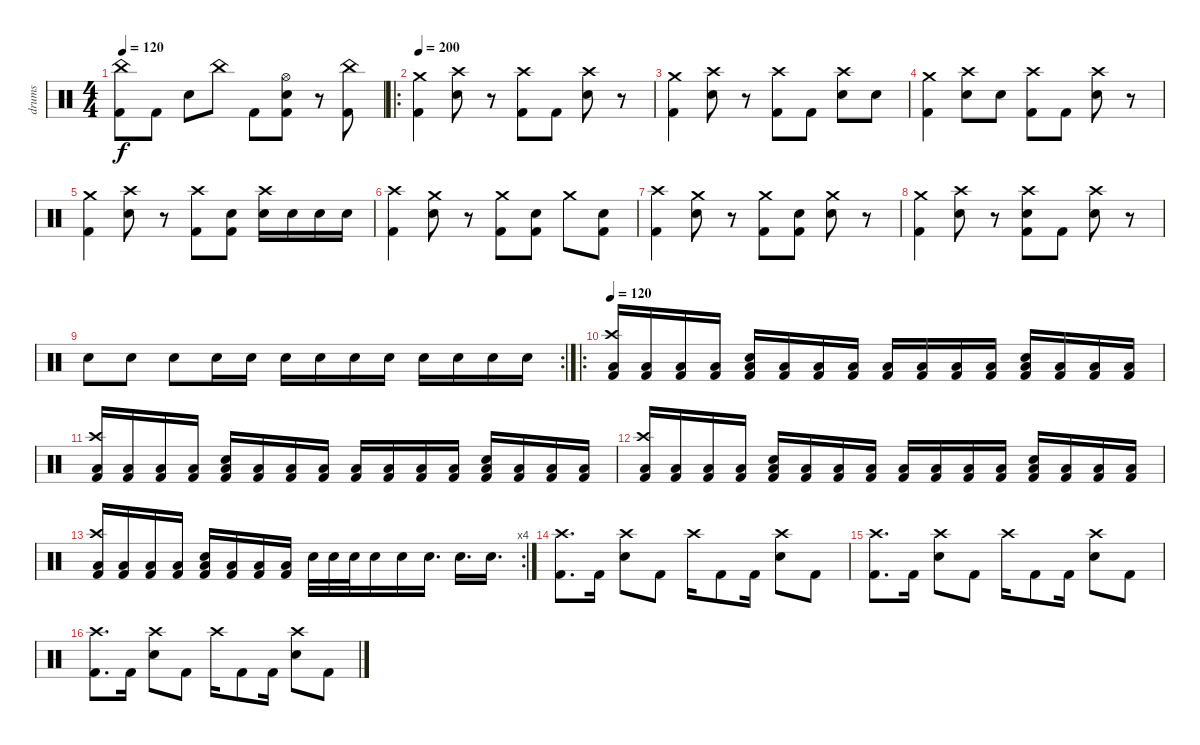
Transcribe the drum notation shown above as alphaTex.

\track ("drums" "drums") {instrument percussion}
\staff {score}
\articulation defaults
\ts (4 4)
\tempo 120
\clef neutral
\ks c
("China (hit)" "Kick (hit) 2").8{dy f} "Kick (hit) 2".8 "Electric Snare (hit)".8 "China (hit)".8 "Kick (hit) 2".8 ("Hi-Hat (open)" "Electric Snare (hit)" "Kick (hit) 2").8 r.8 ("China (hit)" "Kick (hit) 2").8 |
\ro
\tempo 200
("Crash medium (hit)" "Kick (hit) 2").4 ("Crash high (hit)" "Electric Snare (hit)").8 r.8 ("Crash high (hit)" "Kick (hit) 2").8 "Kick (hit) 2".8 ("Crash high (hit)" "Electric Snare (hit)").8 r.8 |
("Crash medium (hit)" "Kick (hit) 2").4 ("Crash high (hit)" "Electric Snare (hit)").8 r.8 ("Crash high (hit)" "Kick (hit) 2").8 "Kick (hit) 2".8 ("Crash high (hit)" "Electric Snare (hit)").8 "Electric Snare (hit)".8 |
("Crash medium (hit)" "Kick (hit) 2").4 ("Crash high (hit)" "Electric Snare (hit)").8 "Electric Snare (hit)".8 ("Crash high (hit)" "Kick (hit) 2").8 "Kick (hit) 2".8 ("Crash high (hit)" "Electric Snare (hit)").8 r.8 |
("Crash medium (hit)" "Kick (hit) 2").4 ("Crash high (hit)" "Electric Snare (hit)").8 r.8 ("Crash high (hit)" "Kick (hit) 2").8 ("Electric Snare (hit)" "Kick (hit) 2").8 ("Crash high (hit)" "Electric Snare (hit)").16 "Electric Snare (hit)".16 "Electric Snare (hit)".16 "Electric Snare (hit)".16 |
("Crash high (hit)" "Kick (hit) 2").4 ("Crash medium (hit)" "Electric Snare (hit)").8 r.8 ("Crash medium (hit)" "Kick (hit) 2").8 ("Electric Snare (hit)" "Kick (hit) 2").8 "Crash medium (hit)".8 ("Electric Snare (hit)" "Kick (hit) 2").8 |
("Crash high (hit)" "Kick (hit) 2").4 ("Crash medium (hit)" "Electric Snare (hit)").8 r.8 ("Crash medium (hit)" "Kick (hit) 2").8 ("Electric Snare (hit)" "Kick (hit) 2").8 ("Crash medium (hit)" "Electric Snare (hit)").8 r.8 |
("Crash medium (hit)" "Kick (hit) 2").4 ("Crash high (hit)" "Electric Snare (hit)").8 r.8 ("Crash high (hit)" "Electric Snare (hit)" "Kick (hit) 2").8 "Kick (hit) 2".8 ("Crash high (hit)" "Electric Snare (hit)").8 r.8 |
\rc 2 "Electric Snare (hit)".8 "Electric Snare (hit)".8 "Electric Snare (hit)".8 "Electric Snare (hit)".16 "Electric Snare (hit)".16 "Electric Snare (hit)".16 "Electric Snare (hit)".16 "Electric Snare (hit)".16 "Electric Snare (hit)".16 "Electric Snare (hit)".16 "Electric Snare (hit)".16 "Electric Snare (hit)".16 "Electric Snare (hit)".16
|
\ro
\tempo 120
("Crash high (hit)" "Low Floor Tom (hit)" "Kick (hit) 2").16 ("Low Floor Tom (hit)" "Kick (hit) 2").16 ("Low Floor Tom (hit)" "Kick (hit) 2").16 ("Low Floor Tom (hit)" "Kick (hit) 2").16 ("Electric Snare (hit)" "Low Floor Tom (hit)" "Kick (hit) 2").16 ("Low Floor Tom (hit)" "Kick (hit) 2").16 ("Low Floor Tom (hit)" "Kick (hit) 2").16 ("Low Floor Tom (hit)" "Kick (hit) 2").16 ("Low Floor Tom (hit)" "Kick (hit) 2").16 ("Low Floor Tom (hit)" "Kick (hit) 2").16 ("Low Floor Tom (hit)" "Kick (hit) 2").16 ("Low Floor Tom (hit)" "Kick (hit) 2").16 ("Electric Snare (hit)" "Low Floor Tom (hit)" "Kick (hit) 2").16 ("Low Floor Tom (hit)" "Kick (hit) 2").16 ("Low Floor Tom (hit)" "Kick (hit) 2").16 ("Low Floor Tom (hit)" "Kick (hit) 2").16 |
("Crash high (hit)" "Low Floor Tom (hit)" "Kick (hit) 2").16 ("Low Floor Tom (hit)" "Kick (hit) 2").16 ("Low Floor Tom (hit)" "Kick (hit) 2").16 ("Low Floor Tom (hit)" "Kick (hit) 2").16 ("Electric Snare (hit)" "Low Floor Tom (hit)" "Kick (hit) 2").16 ("Low Floor Tom (hit)" "Kick (hit) 2").16 ("Low Floor Tom (hit)" "Kick (hit) 2").16 ("Low Floor Tom (hit)" "Kick (hit) 2").16 ("Low Floor Tom (hit)" "Kick (hit) 2").16 ("Low Floor Tom (hit)" "Kick (hit) 2").16 ("Low Floor Tom (hit)" "Kick (hit) 2").16 ("Low Floor Tom (hit)" "Kick (hit) 2").16 ("Electric Snare (hit)" "Low Floor Tom (hit)" "Kick (hit) 2").16 ("Low Floor Tom (hit)" "Kick (hit) 2").16 ("Low Floor Tom (hit)" "Kick (hit) 2").16 ("Low Floor Tom (hit)" "Kick (hit) 2").16 |
("Crash high (hit)" "Low Floor Tom (hit)" "Kick (hit) 2").16 ("Low Floor Tom (hit)" "Kick (hit) 2").16 ("Low Floor Tom (hit)" "Kick (hit) 2").16 ("Low Floor Tom (hit)" "Kick (hit) 2").16 ("Electric Snare (hit)" "Low Floor Tom (hit)" "Kick (hit) 2").16 ("Low Floor Tom (hit)" "Kick (hit) 2").16 ("Low Floor Tom (hit)" "Kick (hit) 2").16 ("Low Floor Tom (hit)" "Kick (hit) 2").16 ("Low Floor Tom (hit)" "Kick (hit) 2").16 ("Low Floor Tom (hit)" "Kick (hit) 2").16 ("Low Floor Tom (hit)" "Kick (hit) 2").16 ("Low Floor Tom (hit)" "Kick (hit) 2").16 ("Electric Snare (hit)" "Low Floor Tom (hit)" "Kick (hit) 2").16 ("Low Floor Tom (hit)" "Kick (hit) 2").16 ("Low Floor Tom (hit)" "Kick (hit) 2").16 ("Low Floor Tom (hit)" "Kick (hit) 2").16 |
\rc 4
("Crash high (hit)" "Low Floor Tom (hit)" "Kick (hit) 2").16 ("Low Floor Tom (hit)" "Kick (hit) 2").16 ("Low Floor Tom (hit)" "Kick (hit) 2").16 ("Low Floor Tom (hit)" "Kick (hit) 2").16 ("Electric Snare (hit)" "Low Floor Tom (hit)" "Kick (hit) 2").16 ("Low Floor Tom (hit)" "Kick (hit) 2").16 ("Low Floor Tom (hit)" "Kick (hit) 2").16 ("Low Floor Tom (hit)" "Kick (hit) 2").16 "Electric Snare (hit)".32 "Electric Snare (hit)".32 "Electric Snare (hit)".32 "Electric Snare (hit)".16 "Electric Snare (hit)".16 "Electric Snare (hit)".16{d} "Electric Snare (hit)".16{d} "Electric Snare (hit)".16{d} |
("Crash high (hit)" "Kick (hit) 2").8{d} "Kick (hit) 2".16 ("Crash high (hit)" "Electric Snare (hit)").8 "Kick (hit) 2".8 "Crash high (hit)".16 "Kick (hit) 2".8 "Kick (hit) 2".16 ("Crash high (hit)" "Electric Snare (hit)").8 "Kick (hit) 2".8 |
("Crash high (hit)" "Kick (hit) 2").8{d} "Kick (hit) 2".16 ("Crash high (hit)" "Electric Snare (hit)").8 "Kick (hit) 2".8 "Crash high (hit)".16 "Kick (hit) 2".8 "Kick (hit) 2".16 ("Crash high (hit)" "Electric Snare (hit)").8 "Kick (hit) 2".8 |
("Crash high (hit)" "Kick (hit) 2").8{d} "Kick (hit) 2".16 ("Crash high (hit)" "Electric Snare (hit)").8 "Kick (hit) 2".8 "Crash high (hit)".16 "Kick (hit) 2".8 "Kick (hit) 2".16 ("Crash high (hit)" "Electric Snare (hit)").8 "Kick (hit) 2".8
